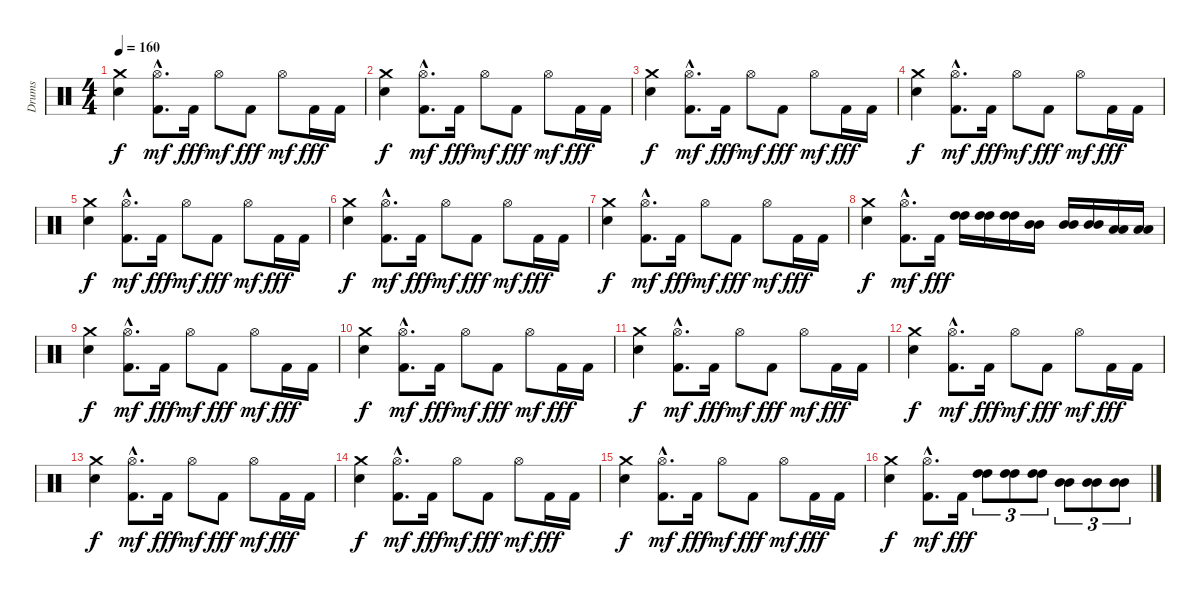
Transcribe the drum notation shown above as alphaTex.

\track ("Drums" "Drums") {instrument percussion}
\staff {score}
\articulation defaults
\ts (4 4)
\tempo 160
\clef neutral
\ks c
("Crash medium (hit)" "Electric Snare (hit)").4{dy f} ("Kick (hit) 2"{hac} "Hi-Hat (open)"{hac}).8{d dy mf} "Kick (hit) 2".16{dy fff} "Hi-Hat (open)".8{dy mf} "Kick (hit) 2".8{dy fff} "Hi-Hat (open)".8{dy mf} "Kick (hit) 2".16{dy fff} "Kick (hit) 2".16 |
("Crash medium (hit)" "Electric Snare (hit)").4{dy f} ("Kick (hit) 2"{hac} "Hi-Hat (open)"{hac}).8{d dy mf} "Kick (hit) 2".16{dy fff} "Hi-Hat (open)".8{dy mf} "Kick (hit) 2".8{dy fff} "Hi-Hat (open)".8{dy mf} "Kick (hit) 2".16{dy fff} "Kick (hit) 2".16 |
("Crash medium (hit)" "Electric Snare (hit)").4{dy f} ("Kick (hit) 2"{hac} "Hi-Hat (open)"{hac}).8{d dy mf} "Kick (hit) 2".16{dy fff} "Hi-Hat (open)".8{dy mf} "Kick (hit) 2".8{dy fff} "Hi-Hat (open)".8{dy mf} "Kick (hit) 2".16{dy fff} "Kick (hit) 2".16 |
("Crash medium (hit)" "Electric Snare (hit)").4{dy f} ("Kick (hit) 2"{hac} "Hi-Hat (open)"{hac}).8{d dy mf} "Kick (hit) 2".16{dy fff} "Hi-Hat (open)".8{dy mf} "Kick (hit) 2".8{dy fff} "Hi-Hat (open)".8{dy mf} "Kick (hit) 2".16{dy fff} "Kick (hit) 2".16 |
("Crash medium (hit)" "Electric Snare (hit)").4{dy f} ("Kick (hit) 2"{hac} "Hi-Hat (open)"{hac}).8{d dy mf} "Kick (hit) 2".16{dy fff} "Hi-Hat (open)".8{dy mf} "Kick (hit) 2".8{dy fff} "Hi-Hat (open)".8{dy mf} "Kick (hit) 2".16{dy fff} "Kick (hit) 2".16 |
("Crash medium (hit)" "Electric Snare (hit)").4{dy f} ("Kick (hit) 2"{hac} "Hi-Hat (open)"{hac}).8{d dy mf} "Kick (hit) 2".16{dy fff} "Hi-Hat (open)".8{dy mf} "Kick (hit) 2".8{dy fff} "Hi-Hat (open)".8{dy mf} "Kick (hit) 2".16{dy fff} "Kick (hit) 2".16 |
("Crash medium (hit)" "Electric Snare (hit)").4{dy f} ("Kick (hit) 2"{hac} "Hi-Hat (open)"{hac}).8{d dy mf} "Kick (hit) 2".16{dy fff} "Hi-Hat (open)".8{dy mf} "Kick (hit) 2".8{dy fff} "Hi-Hat (open)".8{dy mf} "Kick (hit) 2".16{dy fff} "Kick (hit) 2".16 |
("Crash medium (hit)" "Electric Snare (hit)").4{dy f} ("Kick (hit) 2"{hac} "Hi-Hat (open)"{hac}).8{d dy mf} "Kick (hit) 2".16{dy fff} ("High Tom (hit)" "High Tom (hit)").16 ("High Tom (hit)" "High Tom (hit)").16 ("High Tom (hit)" "High Tom (hit)").16 ("Mid Tom (hit)" "Mid Tom (hit)").16 ("Mid Tom (hit)" "Mid Tom (hit)").16 ("Mid Tom (hit)" "Mid Tom (hit)").16 ("Low Tom (hit)" "Low Tom (hit)").16 ("Low Tom (hit)" "Low Tom (hit)").16 |
("Crash medium (hit)" "Electric Snare (hit)").4{dy f} ("Kick (hit) 2"{hac} "Hi-Hat (open)"{hac}).8{d dy mf} "Kick (hit) 2".16{dy fff} "Hi-Hat (open)".8{dy mf} "Kick (hit) 2".8{dy fff} "Hi-Hat (open)".8{dy mf} "Kick (hit) 2".16{dy fff} "Kick (hit) 2".16 |
("Crash medium (hit)" "Electric Snare (hit)").4{dy f} ("Kick (hit) 2"{hac} "Hi-Hat (open)"{hac}).8{d dy mf} "Kick (hit) 2".16{dy fff} "Hi-Hat (open)".8{dy mf} "Kick (hit) 2".8{dy fff} "Hi-Hat (open)".8{dy mf} "Kick (hit) 2".16{dy fff} "Kick (hit) 2".16 |
("Crash medium (hit)" "Electric Snare (hit)").4{dy f} ("Kick (hit) 2"{hac} "Hi-Hat (open)"{hac}).8{d dy mf} "Kick (hit) 2".16{dy fff} "Hi-Hat (open)".8{dy mf} "Kick (hit) 2".8{dy fff} "Hi-Hat (open)".8{dy mf} "Kick (hit) 2".16{dy fff} "Kick (hit) 2".16 |
("Crash medium (hit)" "Electric Snare (hit)").4{dy f} ("Kick (hit) 2"{hac} "Hi-Hat (open)"{hac}).8{d dy mf} "Kick (hit) 2".16{dy fff} "Hi-Hat (open)".8{dy mf} "Kick (hit) 2".8{dy fff} "Hi-Hat (open)".8{dy mf} "Kick (hit) 2".16{dy fff} "Kick (hit) 2".16 |
("Crash medium (hit)" "Electric Snare (hit)").4{dy f} ("Kick (hit) 2"{hac} "Hi-Hat (open)"{hac}).8{d dy mf} "Kick (hit) 2".16{dy fff} "Hi-Hat (open)".8{dy mf} "Kick (hit) 2".8{dy fff} "Hi-Hat (open)".8{dy mf} "Kick (hit) 2".16{dy fff} "Kick (hit) 2".16 |
("Crash medium (hit)" "Electric Snare (hit)").4{dy f} ("Kick (hit) 2"{hac} "Hi-Hat (open)"{hac}).8{d dy mf} "Kick (hit) 2".16{dy fff} "Hi-Hat (open)".8{dy mf} "Kick (hit) 2".8{dy fff} "Hi-Hat (open)".8{dy mf} "Kick (hit) 2".16{dy fff} "Kick (hit) 2".16 |
("Crash medium (hit)" "Electric Snare (hit)").4{dy f} ("Kick (hit) 2"{hac} "Hi-Hat (open)"{hac}).8{d dy mf} "Kick (hit) 2".16{dy fff} "Hi-Hat (open)".8{dy mf} "Kick (hit) 2".8{dy fff} "Hi-Hat (open)".8{dy mf} "Kick (hit) 2".16{dy fff} "Kick (hit) 2".16 |
("Crash medium (hit)" "Electric Snare (hit)").4{dy f} ("Kick (hit) 2"{hac} "Hi-Hat (open)"{hac}).8{d dy mf} "Kick (hit) 2".16{dy fff} ("High Tom (hit)" "High Tom (hit)").8{tu (3 2)} ("High Tom (hit)" "High Tom (hit)").8{tu (3 2)} ("High Tom (hit)" "High Tom (hit)").8{tu (3 2)} ("Mid Tom (hit)" "Mid Tom (hit)").8{tu (3 2)} ("Mid Tom (hit)" "Mid Tom (hit)").8{tu (3 2)} ("Mid Tom (hit)" "Mid Tom (hit)").8{tu (3 2)}
